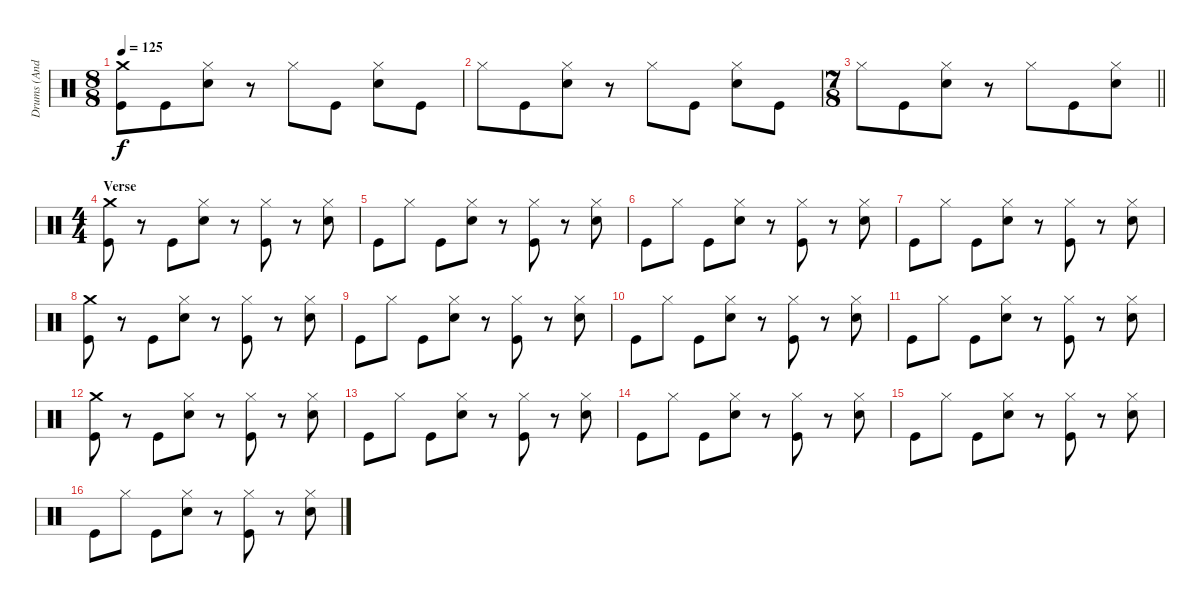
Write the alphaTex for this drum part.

\track ("Drums (Andy Parker)" "Drums (And") {instrument percussion}
\staff {score}
\articulation defaults
\ts (8 8)
\tempo 125
\clef neutral
\ks c
("Crash medium (hit)" "Kick (hit)").8{dy f} "Kick (hit)".8 ("Hi-Hat (closed)" "Electric Snare (hit)").8 r.8 "Hi-Hat (closed)".8 "Kick (hit)".8 ("Hi-Hat (closed)" "Electric Snare (hit)").8 "Kick (hit)".8 |
"Hi-Hat (closed)".8 "Kick (hit)".8 ("Hi-Hat (closed)" "Electric Snare (hit)").8 r.8 "Hi-Hat (closed)".8 "Kick (hit)".8 ("Hi-Hat (closed)" "Electric Snare (hit)").8 "Kick (hit)".8 |
\ts (7 8)
\barLineRight lightlight "Hi-Hat (closed)".8 "Kick (hit)".8
("Hi-Hat (closed)" "Electric Snare (hit)").8 r.8 "Hi-Hat (closed)".8 "Kick (hit)".8 ("Hi-Hat (closed)" "Electric Snare (hit)").8 |
\ts (4 4)
\section ("" "Verse")
("Crash medium (hit)" "Kick (hit)").8 r.8 "Kick (hit)".8 ("Hi-Hat (closed)" "Electric Snare (hit)").8 r.8 ("Hi-Hat (closed)" "Kick (hit)").8 r.8 ("Hi-Hat (closed)" "Electric Snare (hit)").8 |
"Kick (hit)".8 "Hi-Hat (closed)".8 "Kick (hit)".8 ("Hi-Hat (closed)" "Electric Snare (hit)").8 r.8 ("Hi-Hat (closed)" "Kick (hit)").8 r.8 ("Hi-Hat (closed)" "Electric Snare (hit)").8 |
"Kick (hit)".8 "Hi-Hat (closed)".8 "Kick (hit)".8 ("Hi-Hat (closed)" "Electric Snare (hit)").8 r.8 ("Hi-Hat (closed)" "Kick (hit)").8 r.8 ("Hi-Hat (closed)" "Electric Snare (hit)").8 |
"Kick (hit)".8 "Hi-Hat (closed)".8 "Kick (hit)".8 ("Hi-Hat (closed)" "Electric Snare (hit)").8 r.8 ("Hi-Hat (closed)" "Kick (hit)").8 r.8 ("Hi-Hat (closed)" "Electric Snare (hit)").8 |
("Crash medium (hit)" "Kick (hit)").8 r.8 "Kick (hit)".8 ("Hi-Hat (closed)" "Electric Snare (hit)").8 r.8 ("Hi-Hat (closed)" "Kick (hit)").8 r.8 ("Hi-Hat (closed)" "Electric Snare (hit)").8 |
"Kick (hit)".8 "Hi-Hat (closed)".8 "Kick (hit)".8 ("Hi-Hat (closed)" "Electric Snare (hit)").8 r.8 ("Hi-Hat (closed)" "Kick (hit)").8 r.8 ("Hi-Hat (closed)" "Electric Snare (hit)").8 |
"Kick (hit)".8 "Hi-Hat (closed)".8 "Kick (hit)".8 ("Hi-Hat (closed)" "Electric Snare (hit)").8 r.8 ("Hi-Hat (closed)" "Kick (hit)").8 r.8 ("Hi-Hat (closed)" "Electric Snare (hit)").8 |
"Kick (hit)".8 "Hi-Hat (closed)".8 "Kick (hit)".8 ("Hi-Hat (closed)" "Electric Snare (hit)").8 r.8 ("Hi-Hat (closed)" "Kick (hit)").8 r.8 ("Hi-Hat (closed)" "Electric Snare (hit)").8 |
("Crash medium (hit)" "Kick (hit)").8 r.8 "Kick (hit)".8 ("Hi-Hat (closed)" "Electric Snare (hit)").8 r.8 ("Hi-Hat (closed)" "Kick (hit)").8 r.8 ("Hi-Hat (closed)" "Electric Snare (hit)").8 |
"Kick (hit)".8 "Hi-Hat (closed)".8 "Kick (hit)".8 ("Hi-Hat (closed)" "Electric Snare (hit)").8 r.8 ("Hi-Hat (closed)" "Kick (hit)").8 r.8 ("Hi-Hat (closed)" "Electric Snare (hit)").8 |
"Kick (hit)".8 "Hi-Hat (closed)".8 "Kick (hit)".8 ("Hi-Hat (closed)" "Electric Snare (hit)").8 r.8 ("Hi-Hat (closed)" "Kick (hit)").8 r.8 ("Hi-Hat (closed)" "Electric Snare (hit)").8 |
"Kick (hit)".8 "Hi-Hat (closed)".8 "Kick (hit)".8 ("Hi-Hat (closed)" "Electric Snare (hit)").8 r.8 ("Hi-Hat (closed)" "Kick (hit)").8 r.8 ("Hi-Hat (closed)" "Electric Snare (hit)").8 |
"Kick (hit)".8 "Hi-Hat (closed)".8 "Kick (hit)".8 ("Hi-Hat (closed)" "Electric Snare (hit)").8 r.8 ("Hi-Hat (closed)" "Kick (hit)").8 r.8 ("Hi-Hat (closed)" "Electric Snare (hit)").8
